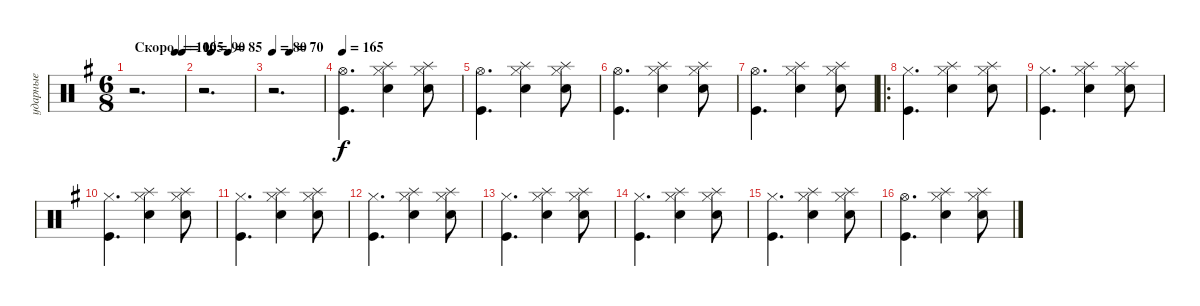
\track ("ударные" "ударные") {instrument percussion}
\staff {score}
\articulation defaults
\ts (6 8)
\tempo (165 "Скоро")
\tempo (100 0.8333333333333334)
\tempo (165 "Скоро")
\clef neutral
\ks eminor
r.2{d dy f} |
\tempo (90 0.16666666666666666)
\tempo (85 0.5)
r.2{d} |
\tempo 80
\tempo (70 0.3333333333333333)
r.2{d} |
\tempo 165
("Hi-Hat (open)" "Kick (hit)").4{d} ("Snare (hit) 2" "Hi-Hat (closed)" "Splash (hit)").4 ("Snare (hit) 2" "Hi-Hat (closed)" "Splash (hit)").8 |
("Hi-Hat (open)" "Kick (hit)").4{d} ("Snare (hit) 2" "Hi-Hat (closed)" "Splash (hit)").4 ("Snare (hit) 2" "Hi-Hat (closed)" "Splash (hit)").8 |
("Hi-Hat (open)" "Kick (hit)").4{d} ("Snare (hit) 2" "Hi-Hat (closed)" "Splash (hit)").4 ("Snare (hit) 2" "Hi-Hat (closed)" "Splash (hit)").8 |
("Hi-Hat (open)" "Kick (hit)").4{d} ("Snare (hit) 2" "Hi-Hat (closed)" "Splash (hit)").4 ("Snare (hit) 2" "Hi-Hat (closed)" "Splash (hit)").8 |
\ro
("Kick (hit)" "Hi-Hat (closed)").4{d} ("Snare (hit) 2" "Hi-Hat (closed)" "Splash (hit)").4 ("Snare (hit) 2" "Hi-Hat (closed)" "Splash (hit)").8 |
("Kick (hit)" "Hi-Hat (closed)").4{d} ("Snare (hit) 2" "Hi-Hat (closed)" "Splash (hit)").4 ("Snare (hit) 2" "Hi-Hat (closed)" "Splash (hit)").8 |
("Kick (hit)" "Hi-Hat (closed)").4{d} ("Snare (hit) 2" "Hi-Hat (closed)" "Splash (hit)").4 ("Snare (hit) 2" "Hi-Hat (closed)" "Splash (hit)").8 |
("Kick (hit)" "Hi-Hat (closed)").4{d} ("Snare (hit) 2" "Hi-Hat (closed)" "Splash (hit)").4 ("Snare (hit) 2" "Hi-Hat (closed)" "Splash (hit)").8 |
("Kick (hit)" "Hi-Hat (closed)").4{d} ("Snare (hit) 2" "Hi-Hat (closed)" "Splash (hit)").4 ("Snare (hit) 2" "Hi-Hat (closed)" "Splash (hit)").8 |
("Kick (hit)" "Hi-Hat (closed)").4{d} ("Snare (hit) 2" "Hi-Hat (closed)" "Splash (hit)").4 ("Snare (hit) 2" "Hi-Hat (closed)" "Splash (hit)").8 |
("Kick (hit)" "Hi-Hat (closed)").4{d} ("Snare (hit) 2" "Hi-Hat (closed)" "Splash (hit)").4 ("Snare (hit) 2" "Hi-Hat (closed)" "Splash (hit)").8 |
("Kick (hit)" "Hi-Hat (closed)").4{d} ("Snare (hit) 2" "Hi-Hat (closed)" "Splash (hit)").4 ("Snare (hit) 2" "Hi-Hat (closed)" "Splash (hit)").8 |
("Kick (hit)" "Hi-Hat (open)").4{d} ("Snare (hit) 2" "Hi-Hat (closed)" "Splash (hit)").4 ("Snare (hit) 2" "Hi-Hat (closed)" "Splash (hit)").8
